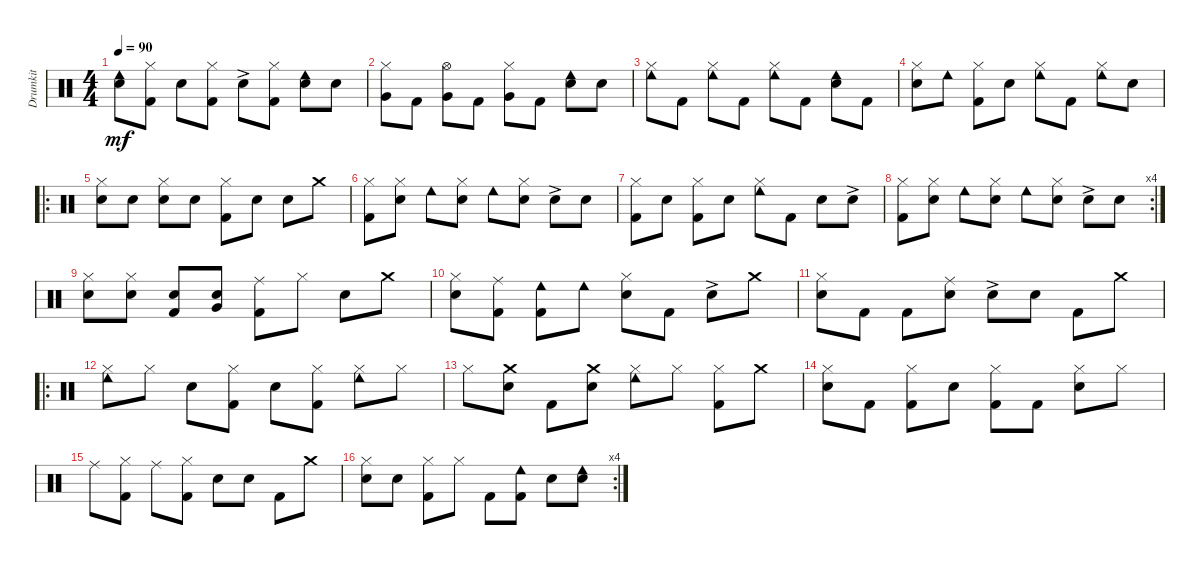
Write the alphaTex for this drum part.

\track ("Drumkit" "Drumkit") {instrument percussion}
\staff {score}
\articulation defaults
\ts (4 4)
\tempo 90
\clef neutral
\ks c
("Snare (hit) 2" "Cowbell low (hit)").8{dy mf} ("Hi-Hat (closed)" "Kick (hit) 2").8 "Snare (hit) 2".8 ("Hi-Hat (closed)" "Kick (hit) 2").8 "Snare (hit) 2"{ac}.8 ("Hi-Hat (closed)" "Kick (hit) 2").8 ("Snare (hit) 2" "Cowbell low (hit)").8 "Snare (hit) 2".8 |
("Hi-Hat (closed)" "Very Low Tom (hit)").8 "Kick (hit) 2".8 ("Very Low Tom (hit)" "Hi-Hat (open)").8 "Kick (hit) 2".8 ("Hi-Hat (closed)" "Very Low Tom (hit)").8 "Kick (hit) 2".8 ("Snare (hit) 2" "Cowbell low (hit)").8 "Snare (hit) 2".8 |
("Cowbell low (hit)" "Hi-Hat (closed)").8 "Kick (hit) 2".8 ("Cowbell low (hit)" "Hi-Hat (closed)").8 "Kick (hit) 2".8 ("Hi-Hat (closed)" "Cowbell low (hit)").8 "Kick (hit) 2".8 ("Snare (hit) 2" "Cowbell low (hit)").8 "Kick (hit) 2".8 |
("Snare (hit) 2" "Hi-Hat (closed)").8 "Cowbell low (hit)".8 ("Kick (hit) 2" "Hi-Hat (closed)").8 "Snare (hit) 2".8 ("Hi-Hat (closed)" "Cowbell low (hit)").8 "Kick (hit) 2".8 ("Hi-Hat (closed)" "Cowbell low (hit)").8 "Snare (hit) 2".8 |
\ro
("Snare (hit) 2" "Hi-Hat (closed)").8 "Snare (hit) 2".8 ("Hi-Hat (closed)" "Snare (hit) 2").8 "Snare (hit) 2".8 ("Kick (hit) 2" "Hi-Hat (closed)").8 "Snare (hit) 2".8 "Snare (hit) 2".8 "Crash medium (hit)".8 |
("Kick (hit) 2" "Hi-Hat (closed)").8 ("Hi-Hat (closed)" "Snare (hit) 2").8 "Cowbell low (hit)".8 ("Hi-Hat (closed)" "Snare (hit) 2").8 "Cowbell low (hit)".8 ("Hi-Hat (closed)" "Snare (hit) 2").8 "Snare (hit) 2"{ac}.8 "Snare (hit) 2".8 |
("Kick (hit) 2" "Hi-Hat (closed)").8 "Snare (hit) 2".8 ("Hi-Hat (closed)" "Kick (hit) 2").8 "Snare (hit) 2".8 ("Hi-Hat (closed)" "Cowbell low (hit)").8 "Kick (hit) 2".8 "Snare (hit) 2".8 "Snare (hit) 2"{ac}.8 |
\rc 4
("Kick (hit) 2" "Hi-Hat (closed)").8 ("Hi-Hat (closed)" "Snare (hit) 2").8 "Cowbell low (hit)".8 ("Hi-Hat (closed)" "Snare (hit) 2").8 "Cowbell low (hit)".8 ("Hi-Hat (closed)" "Snare (hit) 2").8 "Snare (hit) 2"{ac}.8 "Snare (hit) 2".8 |
("Hi-Hat (closed)" "Snare (hit) 2").8 ("Hi-Hat (closed)" "Snare (hit) 2").8 ("Kick (hit) 2" "Snare (hit) 2").8 ("Snare (hit) 2" "Very Low Tom (hit)").8 ("Ride (middle)" "Kick (hit) 2").8 "Hi-Hat (closed)".8 "Snare (hit) 2".8 "Crash medium (hit)".8 |
("Snare (hit) 2" "Hi-Hat (closed)").8 ("Ride (middle)" "Kick (hit) 2").8 ("Cowbell low (hit)" "Kick (hit) 2").8 "Cowbell low (hit)".8 ("Snare (hit) 2" "Hi-Hat (closed)").8 "Kick (hit) 2".8 "Snare (hit) 2"{ac}.8 "Crash medium (hit)".8 |
("Hi-Hat (closed)" "Snare (hit) 2").8 "Kick (hit) 2".8 "Kick (hit) 2".8 ("Snare (hit) 2" "Ride (middle)").8 "Snare (hit) 2"{ac}.8 "Snare (hit) 2".8 "Kick (hit) 2".8 "Crash medium (hit)".8 |
\ro
("Hi-Hat (closed)" "Cowbell low (hit)").8 "Hi-Hat (closed)".8 "Snare (hit) 2".8 ("Kick (hit) 2" "Hi-Hat (closed)").8 "Snare (hit) 2".8 ("Kick (hit) 2" "Hi-Hat (closed)").8 ("Hi-Hat (closed)" "Cowbell low (hit)").8 "Hi-Hat (closed)".8 |
"Hi-Hat (closed)".8 ("Snare (hit) 2" "Crash medium (hit)").8 "Kick (hit) 2".8 ("Snare (hit) 2" "Crash medium (hit)").8 ("Hi-Hat (closed)" "Cowbell low (hit)").8 "Hi-Hat (closed)".8 ("Kick (hit) 2" "Hi-Hat (closed)").8 "Crash medium (hit)".8 |
("Snare (hit) 2" "Hi-Hat (closed)").8 "Kick (hit) 2".8 ("Kick (hit) 2" "Hi-Hat (closed)").8 "Snare (hit) 2".8 ("Kick (hit) 2" "Hi-Hat (closed)").8 "Kick (hit) 2".8 ("Snare (hit) 2" "Hi-Hat (closed)").8 "Hi-Hat (closed)".8 |
"Ride (middle)".8 ("Kick (hit) 2" "Hi-Hat (closed)").8 "Ride (middle)".8 ("Kick (hit) 2" "Hi-Hat (closed)").8 "Snare (hit) 2".8 "Snare (hit) 2".8 "Kick (hit) 2".8 "Crash medium (hit)".8 |
\rc 4
("Snare (hit) 2" "Hi-Hat (closed)").8 "Snare (hit) 2".8 ("Kick (hit) 2" "Hi-Hat (closed)").8 "Hi-Hat (closed)".8 "Kick (hit) 2".8 ("Kick (hit) 2" "Cowbell low (hit)").8 "Snare (hit) 2".8 ("Snare (hit) 2" "Cowbell low (hit)").8
